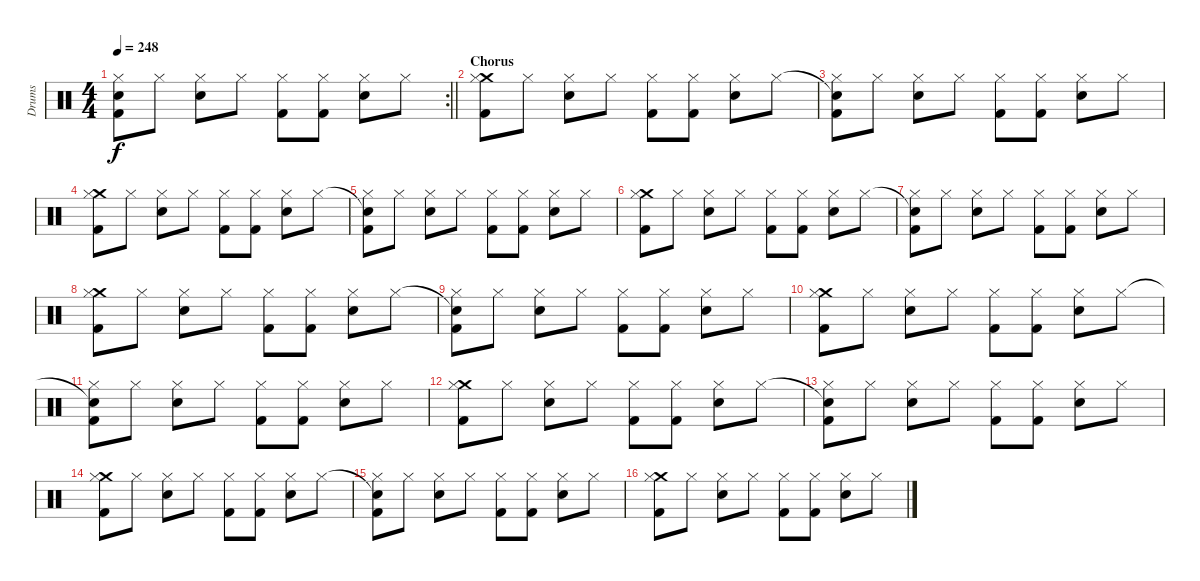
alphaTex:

\track ("Drums" "Drums") {instrument percussion}
\staff {score}
\articulation defaults
\rc 2
\ts (4 4)
\tempo 248
\clef neutral
\barLineRight lightlight
\ks c
("Snare (hit)"{t} "Hi-Hat (closed)" "Kick (hit) 2").8{dy f} "Hi-Hat (closed)".8 ("Hi-Hat (closed)" "Electric Snare (hit)").8 "Hi-Hat (closed)".8 ("Hi-Hat (closed)" "Kick (hit) 2").8 ("Hi-Hat (closed)" "Kick (hit) 2").8 ("Hi-Hat (closed)" "Electric Snare (hit)").8 "Hi-Hat (closed)".8 |
\section ("" "Chorus")
("Crash medium (hit)" "Hi-Hat (closed)" "Kick (hit) 2").8 "Hi-Hat (closed)".8 ("Hi-Hat (closed)" "Electric Snare (hit)").8 "Hi-Hat (closed)".8 ("Hi-Hat (closed)" "Kick (hit) 2").8 ("Hi-Hat (closed)" "Kick (hit) 2").8 ("Hi-Hat (closed)" "Electric Snare (hit)").8 "Hi-Hat (closed)".8 |
("Snare (hit)"{t} "Hi-Hat (closed)" "Kick (hit) 2").8 "Hi-Hat (closed)".8 ("Hi-Hat (closed)" "Electric Snare (hit)").8 "Hi-Hat (closed)".8 ("Hi-Hat (closed)" "Kick (hit) 2").8 ("Hi-Hat (closed)" "Kick (hit) 2").8 ("Hi-Hat (closed)" "Electric Snare (hit)").8 "Hi-Hat (closed)".8 |
("Crash medium (hit)" "Hi-Hat (closed)" "Kick (hit) 2").8 "Hi-Hat (closed)".8 ("Hi-Hat (closed)" "Electric Snare (hit)").8 "Hi-Hat (closed)".8 ("Hi-Hat (closed)" "Kick (hit) 2").8 ("Hi-Hat (closed)" "Kick (hit) 2").8 ("Hi-Hat (closed)" "Electric Snare (hit)").8 "Hi-Hat (closed)".8 |
("Snare (hit)"{t} "Hi-Hat (closed)" "Kick (hit) 2").8 "Hi-Hat (closed)".8 ("Hi-Hat (closed)" "Electric Snare (hit)").8 "Hi-Hat (closed)".8 ("Hi-Hat (closed)" "Kick (hit) 2").8 ("Hi-Hat (closed)" "Kick (hit) 2").8 ("Hi-Hat (closed)" "Electric Snare (hit)").8 "Hi-Hat (closed)".8 |
("Crash medium (hit)" "Hi-Hat (closed)" "Kick (hit) 2").8 "Hi-Hat (closed)".8 ("Hi-Hat (closed)" "Electric Snare (hit)").8 "Hi-Hat (closed)".8 ("Hi-Hat (closed)" "Kick (hit) 2").8 ("Hi-Hat (closed)" "Kick (hit) 2").8 ("Hi-Hat (closed)" "Electric Snare (hit)").8 "Hi-Hat (closed)".8 |
("Snare (hit)"{t} "Hi-Hat (closed)" "Kick (hit) 2").8 "Hi-Hat (closed)".8 ("Hi-Hat (closed)" "Electric Snare (hit)").8 "Hi-Hat (closed)".8 ("Hi-Hat (closed)" "Kick (hit) 2").8 ("Hi-Hat (closed)" "Kick (hit) 2").8 ("Hi-Hat (closed)" "Electric Snare (hit)").8 "Hi-Hat (closed)".8 |
("Crash medium (hit)" "Hi-Hat (closed)" "Kick (hit) 2").8 "Hi-Hat (closed)".8 ("Hi-Hat (closed)" "Electric Snare (hit)").8 "Hi-Hat (closed)".8 ("Hi-Hat (closed)" "Kick (hit) 2").8 ("Hi-Hat (closed)" "Kick (hit) 2").8 ("Hi-Hat (closed)" "Electric Snare (hit)").8 "Hi-Hat (closed)".8 |
("Snare (hit)"{t} "Hi-Hat (closed)" "Kick (hit) 2").8 "Hi-Hat (closed)".8 ("Hi-Hat (closed)" "Electric Snare (hit)").8 "Hi-Hat (closed)".8 ("Hi-Hat (closed)" "Kick (hit) 2").8 ("Hi-Hat (closed)" "Kick (hit) 2").8 ("Hi-Hat (closed)" "Electric Snare (hit)").8 "Hi-Hat (closed)".8 |
("Crash medium (hit)" "Hi-Hat (closed)" "Kick (hit) 2").8 "Hi-Hat (closed)".8 ("Hi-Hat (closed)" "Electric Snare (hit)").8 "Hi-Hat (closed)".8 ("Hi-Hat (closed)" "Kick (hit) 2").8 ("Hi-Hat (closed)" "Kick (hit) 2").8 ("Hi-Hat (closed)" "Electric Snare (hit)").8 "Hi-Hat (closed)".8 |
("Snare (hit)"{t} "Hi-Hat (closed)" "Kick (hit) 2").8 "Hi-Hat (closed)".8 ("Hi-Hat (closed)" "Electric Snare (hit)").8 "Hi-Hat (closed)".8 ("Hi-Hat (closed)" "Kick (hit) 2").8 ("Hi-Hat (closed)" "Kick (hit) 2").8 ("Hi-Hat (closed)" "Electric Snare (hit)").8 "Hi-Hat (closed)".8 |
("Crash medium (hit)" "Hi-Hat (closed)" "Kick (hit) 2").8 "Hi-Hat (closed)".8 ("Hi-Hat (closed)" "Electric Snare (hit)").8 "Hi-Hat (closed)".8 ("Hi-Hat (closed)" "Kick (hit) 2").8 ("Hi-Hat (closed)" "Kick (hit) 2").8 ("Hi-Hat (closed)" "Electric Snare (hit)").8 "Hi-Hat (closed)".8 |
("Snare (hit)"{t} "Hi-Hat (closed)" "Kick (hit) 2").8 "Hi-Hat (closed)".8 ("Hi-Hat (closed)" "Electric Snare (hit)").8 "Hi-Hat (closed)".8 ("Hi-Hat (closed)" "Kick (hit) 2").8 ("Hi-Hat (closed)" "Kick (hit) 2").8 ("Hi-Hat (closed)" "Electric Snare (hit)").8 "Hi-Hat (closed)".8 |
("Crash medium (hit)" "Hi-Hat (closed)" "Kick (hit) 2").8 "Hi-Hat (closed)".8 ("Hi-Hat (closed)" "Electric Snare (hit)").8 "Hi-Hat (closed)".8 ("Hi-Hat (closed)" "Kick (hit) 2").8 ("Hi-Hat (closed)" "Kick (hit) 2").8 ("Hi-Hat (closed)" "Electric Snare (hit)").8 "Hi-Hat (closed)".8 |
("Snare (hit)"{t} "Hi-Hat (closed)" "Kick (hit) 2").8 "Hi-Hat (closed)".8 ("Hi-Hat (closed)" "Electric Snare (hit)").8 "Hi-Hat (closed)".8 ("Hi-Hat (closed)" "Kick (hit) 2").8 ("Hi-Hat (closed)" "Kick (hit) 2").8 ("Hi-Hat (closed)" "Electric Snare (hit)").8 "Hi-Hat (closed)".8 |
("Crash medium (hit)" "Hi-Hat (closed)" "Kick (hit) 2").8 "Hi-Hat (closed)".8 ("Hi-Hat (closed)" "Electric Snare (hit)").8 "Hi-Hat (closed)".8 ("Hi-Hat (closed)" "Kick (hit) 2").8 ("Hi-Hat (closed)" "Kick (hit) 2").8 ("Hi-Hat (closed)" "Electric Snare (hit)").8 "Hi-Hat (closed)".8
